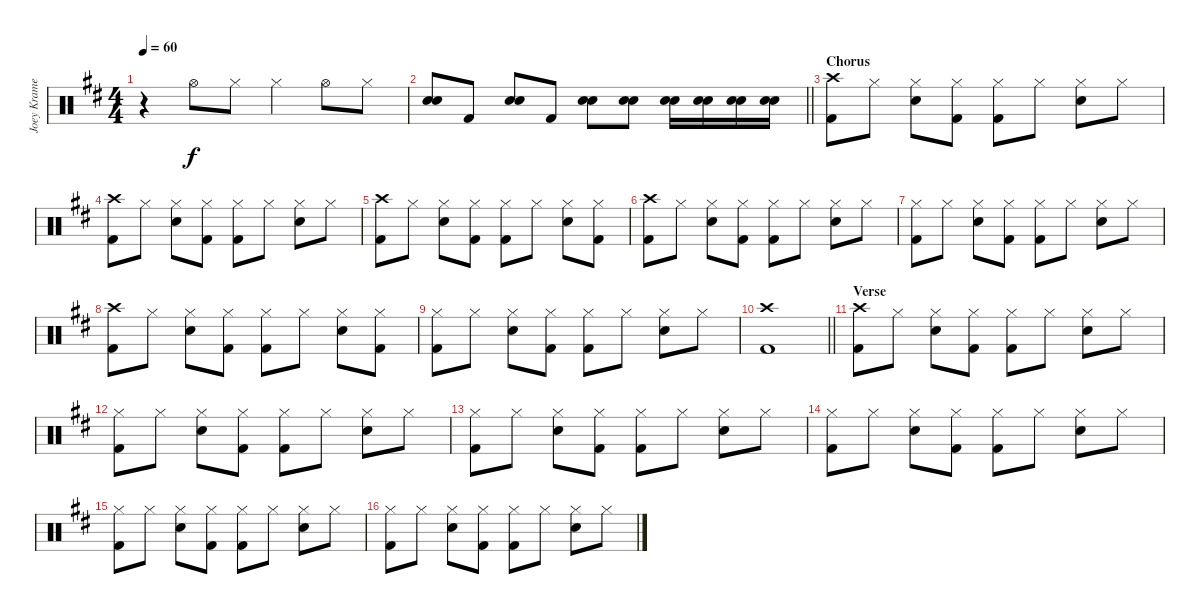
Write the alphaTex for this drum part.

\track ("Joey Kramer" "Joey Krame") {instrument percussion}
\staff {score}
\articulation defaults
\ts (4 4)
\tempo 60
\clef neutral
\ks d
r.4{dy f volume 16} "Hi-Hat (open)".8 "Hi-Hat (closed)".8 "Hi-Hat (closed)".4 "Hi-Hat (open)".8 "Hi-Hat (closed)".8 |
\barLineRight lightlight
("Electric Snare (hit)" "Snare (hit) 2").8 "Kick (hit) 2".8 ("Electric Snare (hit)" "Snare (hit) 2").8 "Kick (hit) 2".8 ("Electric Snare (hit)" "Snare (hit) 2").8 ("Electric Snare (hit)" "Snare (hit) 2").8 ("Electric Snare (hit)" "Snare (hit) 2").16 ("Electric Snare (hit)" "Snare (hit) 2").16 ("Electric Snare (hit)" "Snare (hit) 2").16 ("Electric Snare (hit)" "Snare (hit) 2").16 |
\section ("" "Chorus")
("Crash high (hit)" "Kick (hit) 2").8 "Hi-Hat (closed)".8 ("Hi-Hat (closed)" "Electric Snare (hit)").8 ("Hi-Hat (closed)" "Kick (hit) 2").8 ("Hi-Hat (closed)" "Kick (hit) 2").8 "Hi-Hat (closed)".8 ("Hi-Hat (closed)" "Electric Snare (hit)").8 "Hi-Hat (closed)".8 |
("Crash high (hit)" "Kick (hit) 2").8 "Hi-Hat (closed)".8 ("Hi-Hat (closed)" "Electric Snare (hit)").8 ("Hi-Hat (closed)" "Kick (hit) 2").8 ("Hi-Hat (closed)" "Kick (hit) 2").8 "Hi-Hat (closed)".8 ("Hi-Hat (closed)" "Electric Snare (hit)").8 "Hi-Hat (closed)".8 |
("Crash high (hit)" "Kick (hit) 2").8 "Hi-Hat (closed)".8 ("Hi-Hat (closed)" "Electric Snare (hit)").8 ("Hi-Hat (closed)" "Kick (hit) 2").8 ("Hi-Hat (closed)" "Kick (hit) 2").8 "Hi-Hat (closed)".8 ("Hi-Hat (closed)" "Electric Snare (hit)").8 ("Hi-Hat (closed)" "Kick (hit) 2").8 |
("Crash high (hit)" "Kick (hit) 2").8 "Hi-Hat (closed)".8 ("Hi-Hat (closed)" "Electric Snare (hit)").8 ("Hi-Hat (closed)" "Kick (hit) 2").8 ("Hi-Hat (closed)" "Kick (hit) 2").8 "Hi-Hat (closed)".8 ("Hi-Hat (closed)" "Electric Snare (hit)").8 "Hi-Hat (closed)".8 |
("Hi-Hat (closed)" "Kick (hit) 2").8 "Hi-Hat (closed)".8 ("Hi-Hat (closed)" "Electric Snare (hit)").8 ("Hi-Hat (closed)" "Kick (hit) 2").8 ("Hi-Hat (closed)" "Kick (hit) 2").8 "Hi-Hat (closed)".8 ("Hi-Hat (closed)" "Electric Snare (hit)").8 "Hi-Hat (closed)".8 |
("Crash high (hit)" "Kick (hit) 2").8 "Hi-Hat (closed)".8 ("Hi-Hat (closed)" "Electric Snare (hit)").8 ("Hi-Hat (closed)" "Kick (hit) 2").8 ("Hi-Hat (closed)" "Kick (hit) 2").8 "Hi-Hat (closed)".8 ("Hi-Hat (closed)" "Electric Snare (hit)").8 ("Hi-Hat (closed)" "Kick (hit) 2").8 |
("Hi-Hat (closed)" "Kick (hit) 2").8 "Hi-Hat (closed)".8 ("Hi-Hat (closed)" "Electric Snare (hit)").8 ("Hi-Hat (closed)" "Kick (hit) 2").8 ("Hi-Hat (closed)" "Kick (hit) 2").8 "Hi-Hat (closed)".8 ("Hi-Hat (closed)" "Electric Snare (hit)").8 "Hi-Hat (closed)".8 |
\barLineRight lightlight
("Crash high (hit)" "Kick (hit) 2").1 |
\section ("" "Verse")
("Crash high (hit)" "Kick (hit) 2").8 "Hi-Hat (closed)".8 ("Hi-Hat (closed)" "Electric Snare (hit)").8 ("Hi-Hat (closed)" "Kick (hit) 2").8 ("Hi-Hat (closed)" "Kick (hit) 2").8 "Hi-Hat (closed)".8 ("Hi-Hat (closed)" "Electric Snare (hit)").8 "Hi-Hat (closed)".8 |
("Hi-Hat (closed)" "Kick (hit) 2").8 "Hi-Hat (closed)".8 ("Hi-Hat (closed)" "Electric Snare (hit)").8 ("Hi-Hat (closed)" "Kick (hit) 2").8 ("Hi-Hat (closed)" "Kick (hit) 2").8 "Hi-Hat (closed)".8 ("Hi-Hat (closed)" "Electric Snare (hit)").8 "Hi-Hat (closed)".8 |
("Hi-Hat (closed)" "Kick (hit) 2").8 "Hi-Hat (closed)".8 ("Hi-Hat (closed)" "Electric Snare (hit)").8 ("Hi-Hat (closed)" "Kick (hit) 2").8 ("Hi-Hat (closed)" "Kick (hit) 2").8 "Hi-Hat (closed)".8 ("Hi-Hat (closed)" "Electric Snare (hit)").8 "Hi-Hat (closed)".8 |
("Hi-Hat (closed)" "Kick (hit) 2").8 "Hi-Hat (closed)".8 ("Hi-Hat (closed)" "Electric Snare (hit)").8 ("Hi-Hat (closed)" "Kick (hit) 2").8 ("Hi-Hat (closed)" "Kick (hit) 2").8 "Hi-Hat (closed)".8 ("Hi-Hat (closed)" "Electric Snare (hit)").8 "Hi-Hat (closed)".8 |
("Hi-Hat (closed)" "Kick (hit) 2").8 "Hi-Hat (closed)".8 ("Hi-Hat (closed)" "Electric Snare (hit)").8 ("Hi-Hat (closed)" "Kick (hit) 2").8 ("Hi-Hat (closed)" "Kick (hit) 2").8 "Hi-Hat (closed)".8 ("Hi-Hat (closed)" "Electric Snare (hit)").8 "Hi-Hat (closed)".8 |
("Hi-Hat (closed)" "Kick (hit) 2").8 "Hi-Hat (closed)".8 ("Hi-Hat (closed)" "Electric Snare (hit)").8 ("Hi-Hat (closed)" "Kick (hit) 2").8 ("Hi-Hat (closed)" "Kick (hit) 2").8 "Hi-Hat (closed)".8 ("Hi-Hat (closed)" "Electric Snare (hit)").8 "Hi-Hat (closed)".8
